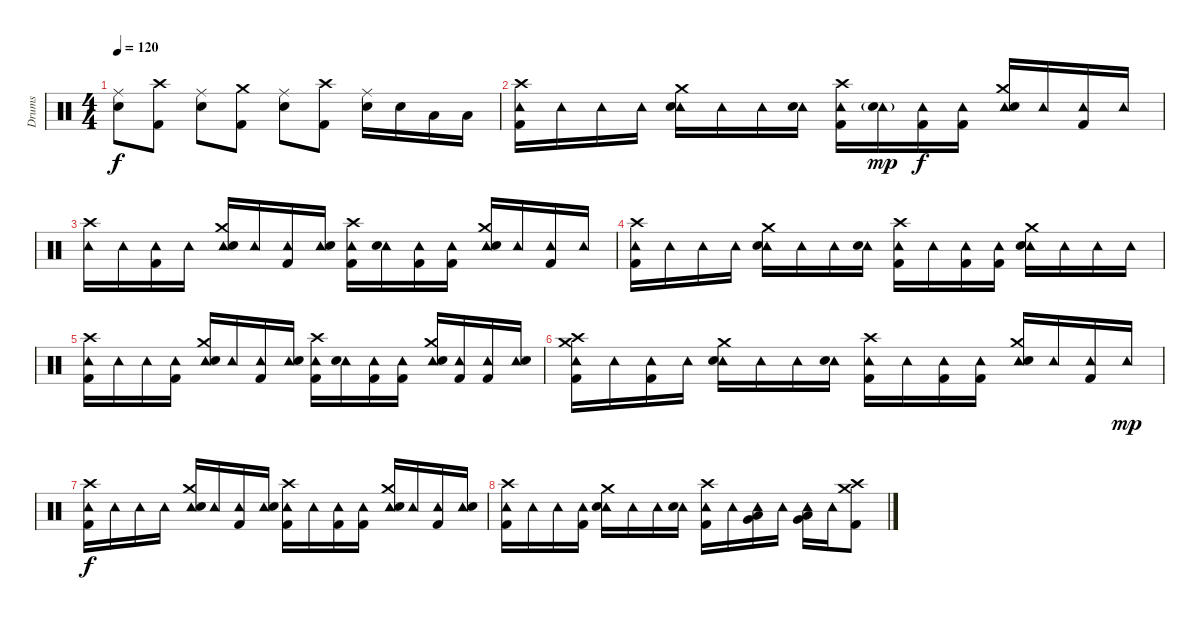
\track ("Drums" "Drums") {instrument percussion}
\staff {score}
\articulation defaults
\ts (4 4)
\tempo 120
\clef neutral
\ks c
("Ride (middle)" "Electric Snare (hit)").8{dy f} ("Crash high (hit)" "Kick (hit) 2").8 ("Ride (middle)" "Electric Snare (hit)").8 ("Crash medium (hit)" "Kick (hit) 2").8 ("Ride (middle)" "Electric Snare (hit)").8 ("Crash high (hit)" "Kick (hit) 2").8 ("Ride (middle)" "Electric Snare (hit)").16 "Electric Snare (hit)".16 "Low Floor Tom (hit)".16 "Low Floor Tom (hit)".16 |
("Tambourine (hit)" "Crash high (hit)" "Kick (hit) 2").16 "Tambourine (hit)".16 "Tambourine (hit)".16 "Tambourine (hit)".16 ("Tambourine (hit)" "Crash medium (hit)" "Electric Snare (hit)").16 "Tambourine (hit)".16 "Tambourine (hit)".16 ("Tambourine (hit)" "Electric Snare (hit)").16 ("Tambourine (hit)" "Crash high (hit)" "Kick (hit) 2").16 ("Tambourine (hit)" "Electric Snare (hit)"{g}).16{dy mp} ("Tambourine (hit)" "Kick (hit) 2").16{dy f} ("Tambourine (hit)" "Kick (hit) 2").16 ("Tambourine (hit)" "Crash medium (hit)" "Electric Snare (hit)").16 "Tambourine (hit)".16 ("Tambourine (hit)" "Kick (hit) 2").16 "Tambourine (hit)".16 |
("Tambourine (hit)" "Crash high (hit)").16 "Tambourine (hit)".16 ("Tambourine (hit)" "Kick (hit) 2").16 "Tambourine (hit)".16 ("Tambourine (hit)" "Crash medium (hit)" "Electric Snare (hit)").16 "Tambourine (hit)".16 ("Tambourine (hit)" "Kick (hit) 2").16 ("Tambourine (hit)" "Electric Snare (hit)").16 ("Tambourine (hit)" "Crash high (hit)" "Kick (hit) 2").16 ("Tambourine (hit)" "Electric Snare (hit)").16 ("Tambourine (hit)" "Kick (hit) 2").16 ("Tambourine (hit)" "Kick (hit) 2").16 ("Tambourine (hit)" "Crash medium (hit)" "Electric Snare (hit)").16 "Tambourine (hit)".16 ("Tambourine (hit)" "Kick (hit) 2").16 "Tambourine (hit)".16 |
("Tambourine (hit)" "Crash high (hit)" "Kick (hit) 2").16 "Tambourine (hit)".16 "Tambourine (hit)".16 "Tambourine (hit)".16 ("Tambourine (hit)" "Crash medium (hit)" "Electric Snare (hit)").16 "Tambourine (hit)".16 "Tambourine (hit)".16 ("Tambourine (hit)" "Electric Snare (hit)").16 ("Tambourine (hit)" "Crash high (hit)" "Kick (hit) 2").16 "Tambourine (hit)".16 ("Tambourine (hit)" "Kick (hit) 2").16 ("Tambourine (hit)" "Kick (hit) 2").16 ("Tambourine (hit)" "Crash medium (hit)" "Electric Snare (hit)").16 "Tambourine (hit)".16 "Tambourine (hit)".16 "Tambourine (hit)".16 |
("Tambourine (hit)" "Crash high (hit)" "Kick (hit) 2").16 "Tambourine (hit)".16 "Tambourine (hit)".16 ("Tambourine (hit)" "Kick (hit) 2").16 ("Tambourine (hit)" "Crash medium (hit)" "Electric Snare (hit)").16 "Tambourine (hit)".16 ("Tambourine (hit)" "Kick (hit) 2").16 ("Tambourine (hit)" "Electric Snare (hit)").16 ("Tambourine (hit)" "Crash high (hit)" "Kick (hit) 2").16 ("Tambourine (hit)" "Electric Snare (hit)").16 ("Tambourine (hit)" "Kick (hit) 2").16 ("Tambourine (hit)" "Kick (hit) 2").16 ("Tambourine (hit)" "Crash medium (hit)" "Electric Snare (hit)").16 ("Tambourine (hit)" "Kick (hit) 2").16 ("Tambourine (hit)" "Kick (hit) 2").16 ("Tambourine (hit)" "Electric Snare (hit)").16 |
("Tambourine (hit)" "Crash high (hit)" "Crash medium (hit)" "Kick (hit) 2").16 "Tambourine (hit)".16 ("Tambourine (hit)" "Kick (hit) 2").16 "Tambourine (hit)".16 ("Tambourine (hit)" "Crash medium (hit)" "Electric Snare (hit)").16 "Tambourine (hit)".16 "Tambourine (hit)".16 ("Tambourine (hit)" "Electric Snare (hit)").16 ("Tambourine (hit)" "Crash high (hit)" "Kick (hit) 2").16 "Tambourine (hit)".16 ("Tambourine (hit)" "Kick (hit) 2").16 ("Tambourine (hit)" "Kick (hit) 2").16 ("Tambourine (hit)" "Crash medium (hit)" "Electric Snare (hit)").16 "Tambourine (hit)".16 ("Tambourine (hit)" "Kick (hit) 2").16 "Tambourine (hit)".16{dy mp} |
("Tambourine (hit)" "Crash high (hit)" "Kick (hit) 2").16{dy f} "Tambourine (hit)".16 "Tambourine (hit)".16 "Tambourine (hit)".16 ("Tambourine (hit)" "Crash medium (hit)" "Electric Snare (hit)").16 "Tambourine (hit)".16 ("Tambourine (hit)" "Kick (hit) 2").16 ("Tambourine (hit)" "Electric Snare (hit)").16 ("Tambourine (hit)" "Crash high (hit)" "Kick (hit) 2").16 "Tambourine (hit)".16 ("Tambourine (hit)" "Kick (hit) 2").16 ("Tambourine (hit)" "Kick (hit) 2").16 ("Tambourine (hit)" "Crash medium (hit)" "Electric Snare (hit)").16 "Tambourine (hit)".16 ("Tambourine (hit)" "Kick (hit) 2").16 ("Tambourine (hit)" "Electric Snare (hit)").16 |
("Tambourine (hit)" "Crash high (hit)" "Kick (hit) 2").16 "Tambourine (hit)".16 "Tambourine (hit)".16 ("Tambourine (hit)" "Kick (hit) 2").16 ("Tambourine (hit)" "Crash medium (hit)" "Electric Snare (hit)").16 "Tambourine (hit)".16 "Tambourine (hit)".16 ("Tambourine (hit)" "Electric Snare (hit)").16 ("Tambourine (hit)" "Crash high (hit)" "Kick (hit) 2").16 "Tambourine (hit)".16 ("Tambourine (hit)" "Low Tom (hit)" "Very Low Tom (hit)").16 "Tambourine (hit)".16 ("Tambourine (hit)" "Very Low Tom (hit)" "Low Floor Tom (hit)").16 "Tambourine (hit)".16 ("Crash medium (hit)" "Crash high (hit)" "Kick (hit) 2").8
